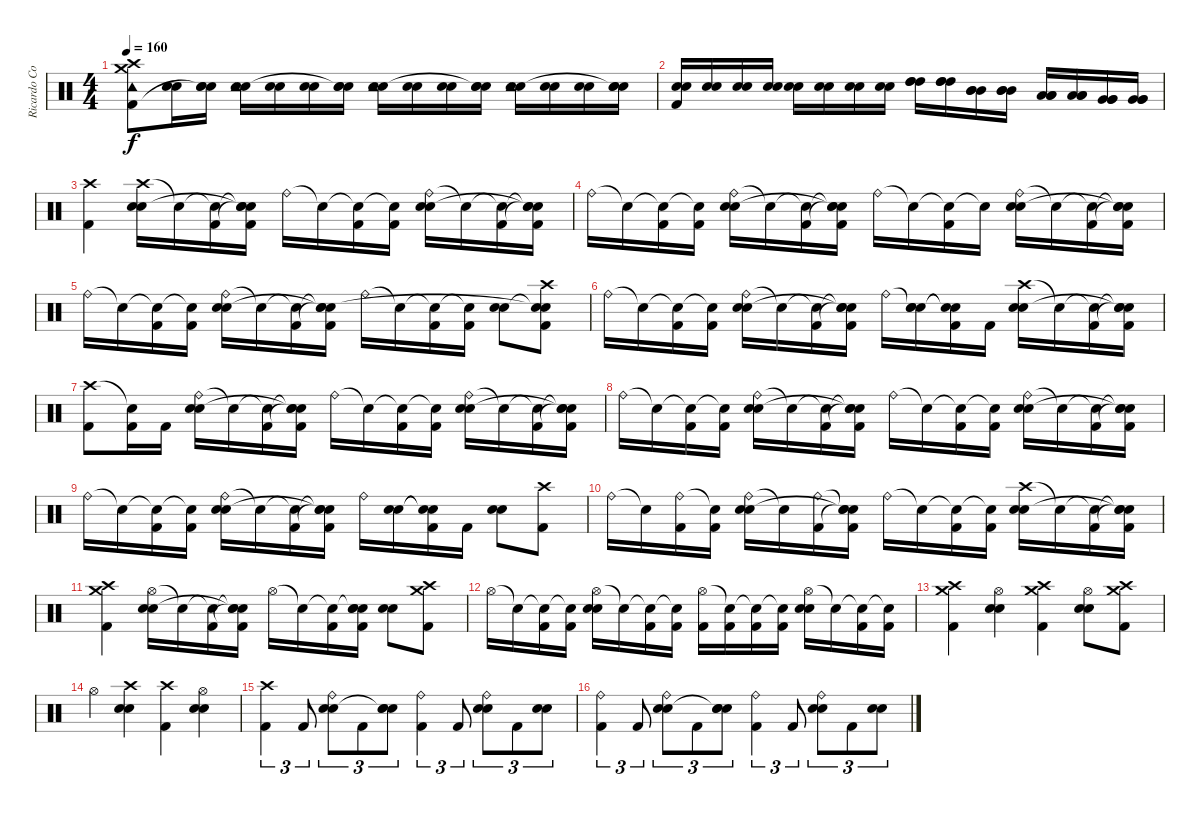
\track ("Ricardo Confessori" "Ricardo Co") {instrument percussion}
\staff {score}
\articulation defaults
\ts (4 4)
\tempo 160
\clef neutral
\ks c
("Crash high (hit)" "Crash medium (hit)" "Kick (hit) 2" "Tambourine (hit)").8{dy f} ("Snare (hit) 2" "Electric Snare (hit)").16 ("Snare (hit) 2" "Electric Snare (hit)" "Snare (hit)"{t}).16 ("Snare (hit) 2" "Electric Snare (hit)" "Tambourine (hit)").16 ("Snare (hit) 2" "Electric Snare (hit)").16 ("Snare (hit) 2" "Electric Snare (hit)").16 ("Snare (hit) 2" "Electric Snare (hit)" "Snare (hit)"{t}).16 ("Snare (hit) 2" "Electric Snare (hit)" "Tambourine (hit)").16 ("Snare (hit) 2" "Electric Snare (hit)").16 ("Snare (hit) 2" "Electric Snare (hit)").16 ("Snare (hit) 2" "Electric Snare (hit)" "Snare (hit)"{t}).16 ("Snare (hit) 2" "Electric Snare (hit)" "Tambourine (hit)").16 ("Snare (hit) 2" "Electric Snare (hit)").16 ("Snare (hit) 2" "Electric Snare (hit)").16 ("Snare (hit) 2" "Electric Snare (hit)" "Snare (hit)"{t}).16 |
("Snare (hit) 2" "Electric Snare (hit)" "Kick (hit) 2").16 ("Snare (hit) 2" "Electric Snare (hit)").16 ("Snare (hit) 2" "Electric Snare (hit)").16 ("Snare (hit) 2" "Electric Snare (hit)").16 ("Snare (hit) 2" "Electric Snare (hit)").16 ("Snare (hit) 2" "Electric Snare (hit)").16 ("Snare (hit) 2" "Electric Snare (hit)").16 ("Snare (hit) 2" "Electric Snare (hit)").16 ("High Tom (hit)" "High Tom (hit)" "High Tom (hit)").16 ("High Tom (hit)" "High Tom (hit)" "High Tom (hit)").16 ("Mid Tom (hit)" "Mid Tom (hit)" "Mid Tom (hit)").16 ("Mid Tom (hit)" "Mid Tom (hit)" "Mid Tom (hit)").16 ("Low Tom (hit)" "Low Tom (hit)" "Low Tom (hit)").16 ("Low Tom (hit)" "Low Tom (hit)" "Low Tom (hit)").16 ("Very Low Tom (hit)" "Very Low Tom (hit)" "Very Low Tom (hit)").16 ("Very Low Tom (hit)" "Very Low Tom (hit)" "Very Low Tom (hit)").16 |
("Crash high (hit)" "Kick (hit) 2").4 ("Crash high (hit)" "Electric Snare (hit)" "Snare (hit) 2").16 "Snare (hit)"{t}.16 ("Snare (hit)"{t} "Kick (hit) 2").16 ("Snare (hit)"{t} "Snare (hit)"{t} "Snare (hit)"{t} "Kick (hit) 2").16 "Ride (bell)".16 "Snare (hit)"{t}.16 ("Snare (hit)"{t} "Kick (hit) 2").16 ("Snare (hit)"{t} "Kick (hit) 2").16 ("Ride (bell)" "Electric Snare (hit)" "Snare (hit) 2").16 "Snare (hit)"{t}.16 ("Snare (hit)"{t} "Kick (hit) 2").16 ("Snare (hit)"{t} "Snare (hit)"{t} "Snare (hit)"{t} "Kick (hit) 2").16 |
"Ride (bell)".16 "Snare (hit)"{t}.16 ("Snare (hit)"{t} "Kick (hit) 2").16 ("Snare (hit)"{t} "Kick (hit) 2").16 ("Ride (bell)" "Electric Snare (hit)" "Snare (hit) 2").16 "Snare (hit)"{t}.16 ("Snare (hit)"{t} "Kick (hit) 2").16 ("Snare (hit)"{t} "Snare (hit)"{t} "Snare (hit)"{t} "Kick (hit) 2").16 "Ride (bell)".16 "Snare (hit)"{t}.16 ("Snare (hit)"{t} "Kick (hit) 2").16 "Snare (hit)"{t}.16 ("Ride (bell)" "Electric Snare (hit)" "Snare (hit) 2").16 "Snare (hit)"{t}.16 ("Snare (hit)"{t} "Kick (hit) 2").16 ("Snare (hit)"{t} "Snare (hit)"{t} "Snare (hit)"{t} "Kick (hit) 2").16 |
"Ride (bell)".16 "Snare (hit)"{t}.16 ("Snare (hit)"{t} "Kick (hit) 2").16 ("Snare (hit)"{t} "Kick (hit) 2").16 ("Ride (bell)" "Electric Snare (hit)" "Snare (hit) 2").16 "Snare (hit)"{t}.16 ("Snare (hit)"{t} "Kick (hit) 2").16 ("Snare (hit)"{t} "Snare (hit)"{t} "Snare (hit)"{t} "Kick (hit) 2").16 "Ride (bell)".16 "Snare (hit)"{t}.16 ("Snare (hit)"{t} "Kick (hit) 2").16 ("Snare (hit)"{t} "Kick (hit) 2").16 ("Electric Snare (hit)" "Snare (hit) 2").8 ("Crash high (hit)" "Snare (hit)"{t} "Snare (hit)"{t} "Kick (hit) 2").8 |
"Ride (bell)".16 "Snare (hit)"{t}.16 ("Snare (hit)"{t} "Kick (hit) 2").16 ("Snare (hit)"{t} "Kick (hit) 2").16 ("Ride (bell)" "Electric Snare (hit)" "Snare (hit) 2").16 "Snare (hit)"{t}.16 ("Snare (hit)"{t} "Kick (hit) 2").16 ("Snare (hit)"{t} "Snare (hit)"{t} "Snare (hit)"{t} "Kick (hit) 2").16 "Ride (bell)".16 ("Snare (hit)"{t} "Snare (hit) 2" "Electric Snare (hit)").16 ("Snare (hit)"{t} "Snare (hit)"{t} "Kick (hit) 2").16 "Kick (hit) 2".16 ("Crash high (hit)" "Electric Snare (hit)" "Snare (hit) 2").16 "Snare (hit)"{t}.16 ("Snare (hit)"{t} "Kick (hit) 2").16 ("Snare (hit)"{t} "Snare (hit)"{t} "Snare (hit)"{t} "Kick (hit) 2").16 |
("Crash high (hit)" "Kick (hit) 2").8 ("Snare (hit)"{t} "Kick (hit) 2").16 "Kick (hit) 2".16 ("Ride (bell)" "Electric Snare (hit)" "Snare (hit) 2").16 "Snare (hit)"{t}.16 ("Snare (hit)"{t} "Kick (hit) 2").16 ("Snare (hit)"{t} "Snare (hit)"{t} "Snare (hit)"{t} "Kick (hit) 2").16 "Ride (bell)".16 "Snare (hit)"{t}.16 ("Snare (hit)"{t} "Kick (hit) 2").16 ("Snare (hit)"{t} "Kick (hit) 2").16 ("Ride (bell)" "Electric Snare (hit)" "Snare (hit) 2").16 "Snare (hit)"{t}.16 ("Snare (hit)"{t} "Kick (hit) 2").16 ("Snare (hit)"{t} "Snare (hit)"{t} "Snare (hit)"{t} "Kick (hit) 2").16 |
"Ride (bell)".16 "Snare (hit)"{t}.16 ("Snare (hit)"{t} "Kick (hit) 2").16 ("Snare (hit)"{t} "Kick (hit) 2").16 ("Ride (bell)" "Electric Snare (hit)" "Snare (hit) 2").16 "Snare (hit)"{t}.16 ("Snare (hit)"{t} "Kick (hit) 2").16 ("Snare (hit)"{t} "Snare (hit)"{t} "Snare (hit)"{t} "Kick (hit) 2").16 "Ride (bell)".16 "Snare (hit)"{t}.16 ("Snare (hit)"{t} "Kick (hit) 2").16 ("Snare (hit)"{t} "Kick (hit) 2").16 ("Ride (bell)" "Electric Snare (hit)" "Snare (hit) 2").16 "Snare (hit)"{t}.16 ("Snare (hit)"{t} "Kick (hit) 2").16 ("Snare (hit)"{t} "Snare (hit)"{t} "Snare (hit)"{t} "Kick (hit) 2").16 |
"Ride (bell)".16 "Snare (hit)"{t}.16 ("Snare (hit)"{t} "Kick (hit) 2").16 ("Snare (hit)"{t} "Kick (hit) 2").16 ("Ride (bell)" "Electric Snare (hit)" "Snare (hit) 2").16 "Snare (hit)"{t}.16 ("Snare (hit)"{t} "Kick (hit) 2").16 ("Snare (hit)"{t} "Snare (hit)"{t} "Snare (hit)"{t} "Kick (hit) 2").16 "Ride (bell)".16 ("Electric Snare (hit)" "Snare (hit) 2").16 ("Snare (hit)"{t} "Snare (hit)"{t} "Kick (hit) 2").16 "Kick (hit) 2".16 ("Electric Snare (hit)" "Snare (hit) 2").8 ("Crash high (hit)" "Kick (hit) 2").8 |
"Ride (bell)".16 "Snare (hit)"{t}.16 ("Ride (bell)" "Kick (hit) 2").16 ("Snare (hit)"{t} "Kick (hit) 2").16 ("Ride (bell)" "Electric Snare (hit)" "Snare (hit) 2").16 "Snare (hit)"{t}.16 ("Ride (bell)" "Kick (hit) 2").16 ("Snare (hit)"{t} "Snare (hit)"{t} "Snare (hit)"{t} "Kick (hit) 2").16 "Ride (bell)".16 "Snare (hit)"{t}.16 ("Snare (hit)"{t} "Kick (hit) 2").16 ("Snare (hit)"{t} "Kick (hit) 2").16 ("Crash high (hit)" "Electric Snare (hit)" "Snare (hit) 2").16 "Snare (hit)"{t}.16 ("Snare (hit)"{t} "Kick (hit) 2").16 ("Snare (hit)"{t} "Snare (hit)"{t} "Snare (hit)"{t} "Kick (hit) 2").16 |
("Crash high (hit)" "Crash medium (hit)" "Kick (hit) 2").4 ("Hi-Hat (open)" "Electric Snare (hit)" "Snare (hit) 2").16 "Snare (hit)"{t}.16 ("Snare (hit)"{t} "Kick (hit) 2").16 ("Snare (hit)"{t} "Snare (hit)"{t} "Snare (hit)"{t} "Kick (hit) 2").16 "Hi-Hat (open)".16 "Snare (hit)"{t}.16 ("Snare (hit)"{t} "Kick (hit) 2").16 ("Snare (hit)"{t} "Electric Snare (hit)" "Snare (hit) 2" "Kick (hit) 2").16 ("Electric Snare (hit)" "Snare (hit) 2").8 ("Crash high (hit)" "Crash medium (hit)" "Kick (hit) 2").8 |
"Hi-Hat (open)".16 "Snare (hit)"{t}.16 ("Snare (hit)"{t} "Kick (hit) 2").16 ("Snare (hit)"{t} "Kick (hit) 2").16 ("Hi-Hat (open)" "Electric Snare (hit)" "Snare (hit) 2").16 "Snare (hit)"{t}.16 ("Snare (hit)"{t} "Kick (hit) 2").16 ("Snare (hit)"{t} "Kick (hit) 2").16 ("Hi-Hat (open)" "Kick (hit) 2").16 ("Snare (hit)"{t} "Kick (hit) 2").16 ("Snare (hit)"{t} "Kick (hit) 2").16 ("Snare (hit)"{t} "Kick (hit) 2").16 ("Hi-Hat (open)" "Electric Snare (hit)" "Snare (hit) 2").16 "Snare (hit)"{t}.16 ("Snare (hit)"{t} "Kick (hit) 2").16 ("Snare (hit)"{t} "Kick (hit) 2").16 |
("Crash high (hit)" "Crash medium (hit)" "Kick (hit) 2").4 ("Hi-Hat (open)" "Electric Snare (hit)" "Snare (hit) 2").4 ("Crash high (hit)" "Crash medium (hit)" "Kick (hit) 2").4 ("Hi-Hat (open)" "Electric Snare (hit)" "Snare (hit) 2").8 ("Crash high (hit)" "Crash medium (hit)" "Kick (hit) 2").8 |
"Hi-Hat (open)".4 ("Crash high (hit)" "Electric Snare (hit)" "Snare (hit) 2").4 ("Crash high (hit)" "Kick (hit) 2").4 ("Hi-Hat (open)" "Electric Snare (hit)" "Snare (hit) 2").4 |
("Crash high (hit)" "Kick (hit) 2").4{tu (3 2)} "Kick (hit) 2".8{tu (3 2)} ("Ride (bell)" "Electric Snare (hit)" "Snare (hit) 2").8{tu (3 2)} "Kick (hit) 2".8{tu (3 2)} ("Electric Snare (hit)" "Snare (hit) 2" "Snare (hit)"{t}).8{tu (3 2)} ("Ride (bell)" "Kick (hit) 2").4{tu (3 2)} "Kick (hit) 2".8{tu (3 2)} ("Ride (bell)" "Electric Snare (hit)" "Snare (hit) 2").8{tu (3 2)} "Kick (hit) 2".8{tu (3 2)} ("Electric Snare (hit)" "Snare (hit) 2").8{tu (3 2)} |
("Ride (bell)" "Kick (hit) 2").4{tu (3 2)} "Kick (hit) 2".8{tu (3 2)} ("Ride (bell)" "Electric Snare (hit)" "Snare (hit) 2").8{tu (3 2)} "Kick (hit) 2".8{tu (3 2)} ("Electric Snare (hit)" "Snare (hit) 2" "Snare (hit)"{t}).8{tu (3 2)} ("Ride (bell)" "Kick (hit) 2").4{tu (3 2)} "Kick (hit) 2".8{tu (3 2)} ("Ride (bell)" "Electric Snare (hit)" "Snare (hit) 2").8{tu (3 2)} "Kick (hit) 2".8{tu (3 2)} ("Electric Snare (hit)" "Snare (hit) 2").8{tu (3 2)}
